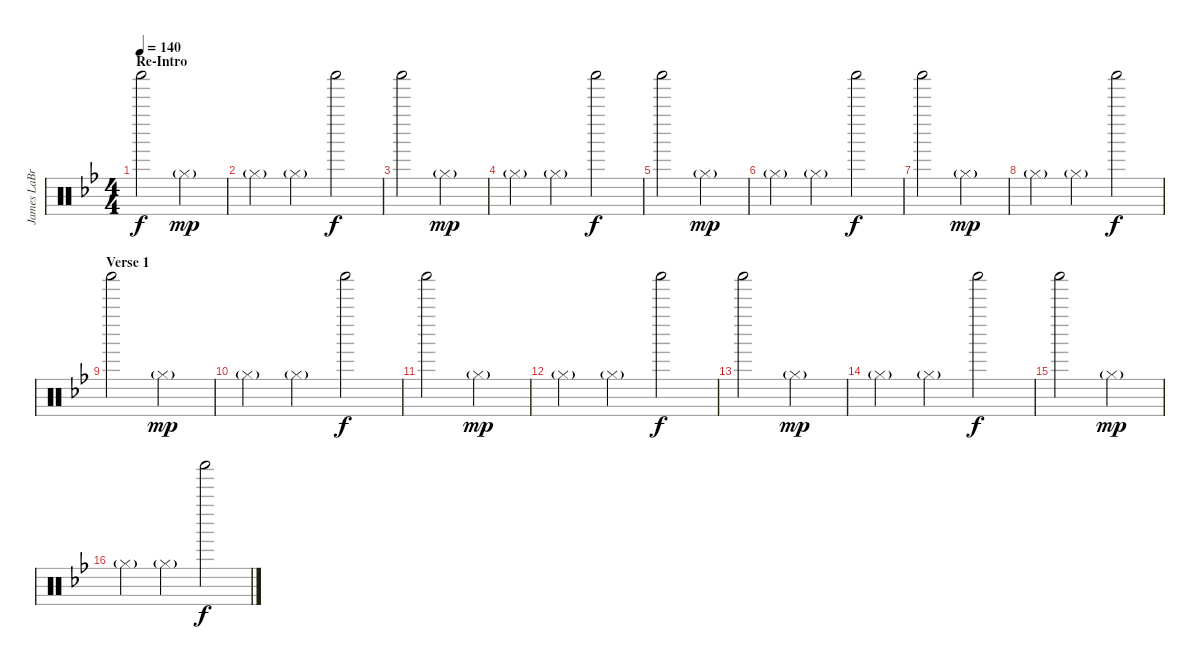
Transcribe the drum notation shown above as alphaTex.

\track ("James LaBrie Percussion" "James LaBr") {instrument percussion}
\staff {score}
\articulation defaults
\ts (4 4)
\section ("" "Re-Intro")
\tempo 140
\clef neutral
\ks bb "Shaker (hit)".2{dy f} "Hi-Hat (closed)"{g}.2{dy mp}
|
"Hi-Hat (closed)"{g}.4 "Hi-Hat (closed)"{g}.4 "Shaker (hit)".2{dy f} |
"Shaker (hit)".2 "Hi-Hat (closed)"{g}.2{dy mp} |
"Hi-Hat (closed)"{g}.4 "Hi-Hat (closed)"{g}.4 "Shaker (hit)".2{dy f} |
"Shaker (hit)".2 "Hi-Hat (closed)"{g}.2{dy mp} |
"Hi-Hat (closed)"{g}.4 "Hi-Hat (closed)"{g}.4 "Shaker (hit)".2{dy f} |
\section ("" "")
"Shaker (hit)".2 "Hi-Hat (closed)"{g}.2{dy mp} |
"Hi-Hat (closed)"{g}.4 "Hi-Hat (closed)"{g}.4 "Shaker (hit)".2{dy f} |
\section ("" "Verse 1")
"Shaker (hit)".2 "Hi-Hat (closed)"{g}.2{dy mp} |
"Hi-Hat (closed)"{g}.4 "Hi-Hat (closed)"{g}.4 "Shaker (hit)".2{dy f} |
"Shaker (hit)".2 "Hi-Hat (closed)"{g}.2{dy mp} |
"Hi-Hat (closed)"{g}.4 "Hi-Hat (closed)"{g}.4 "Shaker (hit)".2{dy f} |
"Shaker (hit)".2 "Hi-Hat (closed)"{g}.2{dy mp} |
"Hi-Hat (closed)"{g}.4 "Hi-Hat (closed)"{g}.4 "Shaker (hit)".2{dy f} |
"Shaker (hit)".2 "Hi-Hat (closed)"{g}.2{dy mp} |
"Hi-Hat (closed)"{g}.4 "Hi-Hat (closed)"{g}.4 "Shaker (hit)".2{dy f}
